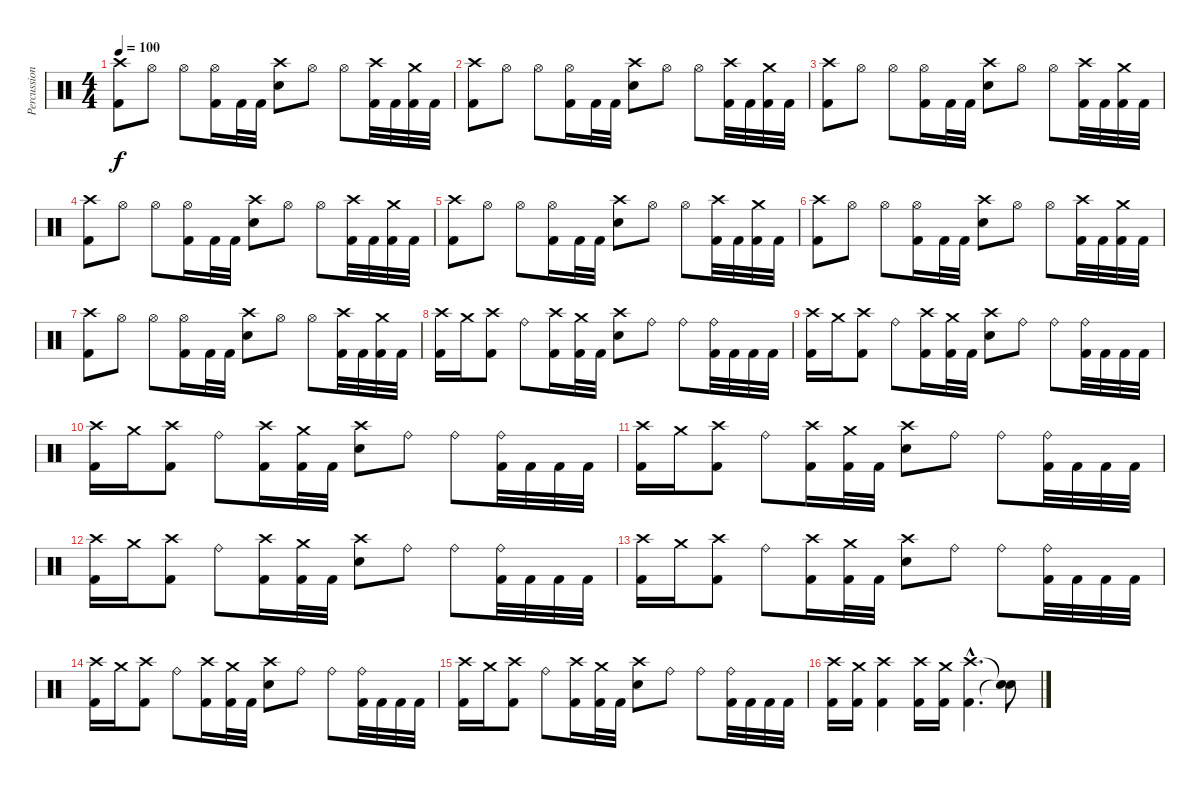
\track ("Percussion" "Percussion") {instrument percussion}
\staff {score}
\articulation defaults
\ts (4 4)
\tempo 100
\clef neutral
\ks c
("Crash high (hit)" "Kick (hit) 2").8{dy f} "Hi-Hat (open)".8 "Hi-Hat (open)".8 ("Hi-Hat (open)" "Kick (hit) 2").16 "Kick (hit) 2".32 "Kick (hit) 2".32 ("Crash high (hit)" "Electric Snare (hit)").8 "Hi-Hat (open)".8 "Hi-Hat (open)".8 ("Crash high (hit)" "Kick (hit) 2").32 "Kick (hit) 2".32 ("Crash medium (hit)" "Kick (hit) 2").32 "Kick (hit) 2".32 |
("Crash high (hit)" "Kick (hit) 2").8 "Hi-Hat (open)".8 "Hi-Hat (open)".8 ("Hi-Hat (open)" "Kick (hit) 2").16 "Kick (hit) 2".32 "Kick (hit) 2".32 ("Crash high (hit)" "Electric Snare (hit)").8 "Hi-Hat (open)".8 "Hi-Hat (open)".8 ("Crash high (hit)" "Kick (hit) 2").32 "Kick (hit) 2".32 ("Crash medium (hit)" "Kick (hit) 2").32 "Kick (hit) 2".32 |
("Crash high (hit)" "Kick (hit) 2").8 "Hi-Hat (open)".8 "Hi-Hat (open)".8 ("Hi-Hat (open)" "Kick (hit) 2").16 "Kick (hit) 2".32 "Kick (hit) 2".32 ("Crash high (hit)" "Electric Snare (hit)").8 "Hi-Hat (open)".8 "Hi-Hat (open)".8 ("Crash high (hit)" "Kick (hit) 2").32 "Kick (hit) 2".32 ("Crash medium (hit)" "Kick (hit) 2").32 "Kick (hit) 2".32 |
("Crash high (hit)" "Kick (hit) 2").8 "Hi-Hat (open)".8 "Hi-Hat (open)".8 ("Hi-Hat (open)" "Kick (hit) 2").16 "Kick (hit) 2".32 "Kick (hit) 2".32 ("Crash high (hit)" "Electric Snare (hit)").8 "Hi-Hat (open)".8 "Hi-Hat (open)".8 ("Crash high (hit)" "Kick (hit) 2").32 "Kick (hit) 2".32 ("Crash medium (hit)" "Kick (hit) 2").32 "Kick (hit) 2".32 |
("Crash high (hit)" "Kick (hit) 2").8 "Hi-Hat (open)".8 "Hi-Hat (open)".8 ("Hi-Hat (open)" "Kick (hit) 2").16 "Kick (hit) 2".32 "Kick (hit) 2".32 ("Crash high (hit)" "Electric Snare (hit)").8 "Hi-Hat (open)".8 "Hi-Hat (open)".8 ("Crash high (hit)" "Kick (hit) 2").32 "Kick (hit) 2".32 ("Crash medium (hit)" "Kick (hit) 2").32 "Kick (hit) 2".32 |
("Crash high (hit)" "Kick (hit) 2").8 "Hi-Hat (open)".8 "Hi-Hat (open)".8 ("Hi-Hat (open)" "Kick (hit) 2").16 "Kick (hit) 2".32 "Kick (hit) 2".32 ("Crash high (hit)" "Electric Snare (hit)").8 "Hi-Hat (open)".8 "Hi-Hat (open)".8 ("Crash high (hit)" "Kick (hit) 2").32 "Kick (hit) 2".32 ("Crash medium (hit)" "Kick (hit) 2").32 "Kick (hit) 2".32 |
("Crash high (hit)" "Kick (hit) 2").8 "Hi-Hat (open)".8 "Hi-Hat (open)".8 ("Hi-Hat (open)" "Kick (hit) 2").16 "Kick (hit) 2".32 "Kick (hit) 2".32 ("Crash high (hit)" "Electric Snare (hit)").8 "Hi-Hat (open)".8 "Hi-Hat (open)".8 ("Crash high (hit)" "Kick (hit) 2").32 "Kick (hit) 2".32 ("Crash medium (hit)" "Kick (hit) 2").32 "Kick (hit) 2".32 |
("Crash high (hit)" "Kick (hit) 2").16 "Crash medium (hit)".16 ("Crash high (hit)" "Kick (hit) 2").8 "Ride (bell)".8 ("Crash high (hit)" "Kick (hit) 2").16 ("Crash medium (hit)" "Kick (hit) 2").32 "Kick (hit) 2".32 ("Crash high (hit)" "Electric Snare (hit)").8 "Ride (bell)".8 "Ride (bell)".8 ("Ride (bell)" "Kick (hit) 2").32 "Kick (hit) 2".32 "Kick (hit) 2".32 "Kick (hit) 2".32 |
("Crash high (hit)" "Kick (hit) 2").16 "Crash medium (hit)".16 ("Crash high (hit)" "Kick (hit) 2").8 "Ride (bell)".8 ("Crash high (hit)" "Kick (hit) 2").16 ("Crash medium (hit)" "Kick (hit) 2").32 "Kick (hit) 2".32 ("Crash high (hit)" "Electric Snare (hit)").8 "Ride (bell)".8 "Ride (bell)".8 ("Ride (bell)" "Kick (hit) 2").32 "Kick (hit) 2".32 "Kick (hit) 2".32 "Kick (hit) 2".32 |
("Crash high (hit)" "Kick (hit) 2").16 "Crash medium (hit)".16 ("Crash high (hit)" "Kick (hit) 2").8 "Ride (bell)".8 ("Crash high (hit)" "Kick (hit) 2").16 ("Crash medium (hit)" "Kick (hit) 2").32 "Kick (hit) 2".32 ("Crash high (hit)" "Electric Snare (hit)").8 "Ride (bell)".8 "Ride (bell)".8 ("Ride (bell)" "Kick (hit) 2").32 "Kick (hit) 2".32 "Kick (hit) 2".32 "Kick (hit) 2".32 |
("Crash high (hit)" "Kick (hit) 2").16 "Crash medium (hit)".16 ("Crash high (hit)" "Kick (hit) 2").8 "Ride (bell)".8 ("Crash high (hit)" "Kick (hit) 2").16 ("Crash medium (hit)" "Kick (hit) 2").32 "Kick (hit) 2".32 ("Crash high (hit)" "Electric Snare (hit)").8 "Ride (bell)".8 "Ride (bell)".8 ("Ride (bell)" "Kick (hit) 2").32 "Kick (hit) 2".32 "Kick (hit) 2".32 "Kick (hit) 2".32 |
("Crash high (hit)" "Kick (hit) 2").16 "Crash medium (hit)".16 ("Crash high (hit)" "Kick (hit) 2").8 "Ride (bell)".8 ("Crash high (hit)" "Kick (hit) 2").16 ("Crash medium (hit)" "Kick (hit) 2").32 "Kick (hit) 2".32 ("Crash high (hit)" "Electric Snare (hit)").8 "Ride (bell)".8 "Ride (bell)".8 ("Ride (bell)" "Kick (hit) 2").32 "Kick (hit) 2".32 "Kick (hit) 2".32 "Kick (hit) 2".32 |
("Crash high (hit)" "Kick (hit) 2").16 "Crash medium (hit)".16 ("Crash high (hit)" "Kick (hit) 2").8 "Ride (bell)".8 ("Crash high (hit)" "Kick (hit) 2").16 ("Crash medium (hit)" "Kick (hit) 2").32 "Kick (hit) 2".32 ("Crash high (hit)" "Electric Snare (hit)").8 "Ride (bell)".8 "Ride (bell)".8 ("Ride (bell)" "Kick (hit) 2").32 "Kick (hit) 2".32 "Kick (hit) 2".32 "Kick (hit) 2".32 |
("Crash high (hit)" "Kick (hit) 2").16 "Crash medium (hit)".16 ("Crash high (hit)" "Kick (hit) 2").8 "Ride (bell)".8 ("Crash high (hit)" "Kick (hit) 2").16 ("Crash medium (hit)" "Kick (hit) 2").32 "Kick (hit) 2".32 ("Crash high (hit)" "Electric Snare (hit)").8 "Ride (bell)".8 "Ride (bell)".8 ("Ride (bell)" "Kick (hit) 2").32 "Kick (hit) 2".32 "Kick (hit) 2".32 "Kick (hit) 2".32 |
("Crash high (hit)" "Kick (hit) 2").16 "Crash medium (hit)".16 ("Crash high (hit)" "Kick (hit) 2").8 "Ride (bell)".8 ("Crash high (hit)" "Kick (hit) 2").16 ("Crash medium (hit)" "Kick (hit) 2").32 "Kick (hit) 2".32 ("Crash high (hit)" "Electric Snare (hit)").8 "Ride (bell)".8 "Ride (bell)".8 ("Ride (bell)" "Kick (hit) 2").32 "Kick (hit) 2".32 "Kick (hit) 2".32 "Kick (hit) 2".32 |
("Crash high (hit)" "Kick (hit) 2").16 ("Crash medium (hit)" "Kick (hit) 2").16 ("Crash high (hit)" "Kick (hit) 2").4 ("Crash high (hit)" "Kick (hit) 2").16 ("Crash medium (hit)" "Kick (hit) 2").16 ("Crash high (hit)"{hac} "Kick (hit) 2"{hac}).4{d} ("Snare (hit)"{t} "Snare (hit)"{t}).8
